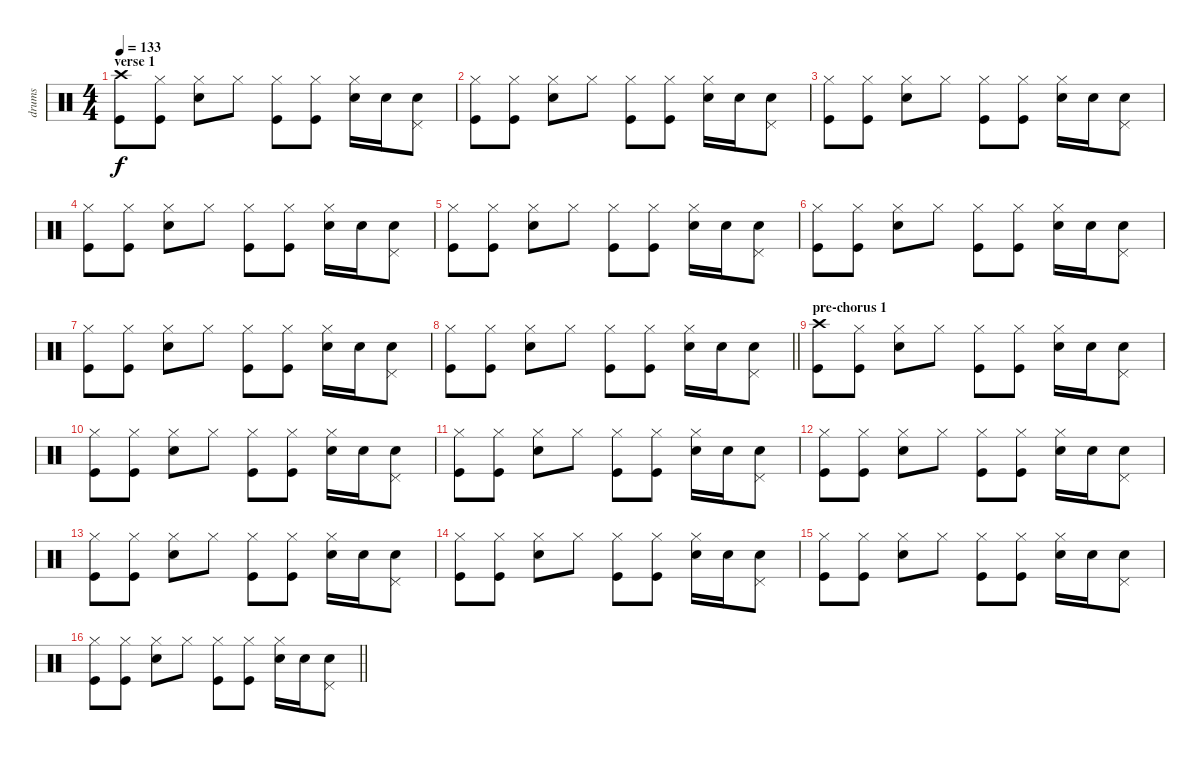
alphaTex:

\track ("drums" "drums") {instrument percussion}
\staff {score}
\articulation defaults
\ts (4 4)
\section ("" "verse 1")
\tempo 133
\clef neutral
\ks c
("Kick (hit)" "Crash high (hit)").8{dy f} ("Kick (hit)" "Hi-Hat (closed)").8 ("Electric Snare (hit)" "Hi-Hat (closed)").8 "Hi-Hat (closed)".8 ("Kick (hit)" "Hi-Hat (closed)").8 ("Kick (hit)" "Hi-Hat (closed)").8 ("Electric Snare (hit)" "Hi-Hat (closed)").16 "Electric Snare (hit)".16 ("Electric Snare (hit)" "Pedal Hi-Hat (hit)").8 |
("Kick (hit)" "Hi-Hat (closed)").8 ("Kick (hit)" "Hi-Hat (closed)").8 ("Electric Snare (hit)" "Hi-Hat (closed)").8 "Hi-Hat (closed)".8 ("Kick (hit)" "Hi-Hat (closed)").8 ("Kick (hit)" "Hi-Hat (closed)").8 ("Electric Snare (hit)" "Hi-Hat (closed)").16 "Electric Snare (hit)".16 ("Electric Snare (hit)" "Pedal Hi-Hat (hit)").8 |
("Kick (hit)" "Hi-Hat (closed)").8 ("Kick (hit)" "Hi-Hat (closed)").8 ("Electric Snare (hit)" "Hi-Hat (closed)").8 "Hi-Hat (closed)".8 ("Kick (hit)" "Hi-Hat (closed)").8 ("Kick (hit)" "Hi-Hat (closed)").8 ("Electric Snare (hit)" "Hi-Hat (closed)").16 "Electric Snare (hit)".16 ("Electric Snare (hit)" "Pedal Hi-Hat (hit)").8 |
("Kick (hit)" "Hi-Hat (closed)").8 ("Kick (hit)" "Hi-Hat (closed)").8 ("Electric Snare (hit)" "Hi-Hat (closed)").8 "Hi-Hat (closed)".8 ("Kick (hit)" "Hi-Hat (closed)").8 ("Kick (hit)" "Hi-Hat (closed)").8 ("Electric Snare (hit)" "Hi-Hat (closed)").16 "Electric Snare (hit)".16 ("Electric Snare (hit)" "Pedal Hi-Hat (hit)").8 |
("Kick (hit)" "Hi-Hat (closed)").8 ("Kick (hit)" "Hi-Hat (closed)").8 ("Electric Snare (hit)" "Hi-Hat (closed)").8 "Hi-Hat (closed)".8 ("Kick (hit)" "Hi-Hat (closed)").8 ("Kick (hit)" "Hi-Hat (closed)").8 ("Electric Snare (hit)" "Hi-Hat (closed)").16 "Electric Snare (hit)".16 ("Electric Snare (hit)" "Pedal Hi-Hat (hit)").8 |
("Kick (hit)" "Hi-Hat (closed)").8 ("Kick (hit)" "Hi-Hat (closed)").8 ("Electric Snare (hit)" "Hi-Hat (closed)").8 "Hi-Hat (closed)".8 ("Kick (hit)" "Hi-Hat (closed)").8 ("Kick (hit)" "Hi-Hat (closed)").8 ("Electric Snare (hit)" "Hi-Hat (closed)").16 "Electric Snare (hit)".16 ("Electric Snare (hit)" "Pedal Hi-Hat (hit)").8 |
("Kick (hit)" "Hi-Hat (closed)").8 ("Kick (hit)" "Hi-Hat (closed)").8 ("Electric Snare (hit)" "Hi-Hat (closed)").8 "Hi-Hat (closed)".8 ("Kick (hit)" "Hi-Hat (closed)").8 ("Kick (hit)" "Hi-Hat (closed)").8 ("Electric Snare (hit)" "Hi-Hat (closed)").16 "Electric Snare (hit)".16 ("Electric Snare (hit)" "Pedal Hi-Hat (hit)").8 |
\barLineRight lightlight
("Kick (hit)" "Hi-Hat (closed)").8 ("Kick (hit)" "Hi-Hat (closed)").8 ("Electric Snare (hit)" "Hi-Hat (closed)").8 "Hi-Hat (closed)".8 ("Kick (hit)" "Hi-Hat (closed)").8 ("Kick (hit)" "Hi-Hat (closed)").8 ("Electric Snare (hit)" "Hi-Hat (closed)").16 "Electric Snare (hit)".16 ("Electric Snare (hit)" "Pedal Hi-Hat (hit)").8 |
\section ("" "pre-chorus 1")
("Kick (hit)" "Crash high (hit)").8 ("Kick (hit)" "Hi-Hat (closed)").8 ("Electric Snare (hit)" "Hi-Hat (closed)").8 "Hi-Hat (closed)".8 ("Kick (hit)" "Hi-Hat (closed)").8 ("Kick (hit)" "Hi-Hat (closed)").8 ("Electric Snare (hit)" "Hi-Hat (closed)").16 "Electric Snare (hit)".16 ("Electric Snare (hit)" "Pedal Hi-Hat (hit)").8 |
("Kick (hit)" "Hi-Hat (closed)").8 ("Kick (hit)" "Hi-Hat (closed)").8 ("Electric Snare (hit)" "Hi-Hat (closed)").8 "Hi-Hat (closed)".8 ("Kick (hit)" "Hi-Hat (closed)").8 ("Kick (hit)" "Hi-Hat (closed)").8 ("Electric Snare (hit)" "Hi-Hat (closed)").16 "Electric Snare (hit)".16 ("Electric Snare (hit)" "Pedal Hi-Hat (hit)").8 |
("Kick (hit)" "Hi-Hat (closed)").8 ("Kick (hit)" "Hi-Hat (closed)").8 ("Electric Snare (hit)" "Hi-Hat (closed)").8 "Hi-Hat (closed)".8 ("Kick (hit)" "Hi-Hat (closed)").8 ("Kick (hit)" "Hi-Hat (closed)").8 ("Electric Snare (hit)" "Hi-Hat (closed)").16 "Electric Snare (hit)".16 ("Electric Snare (hit)" "Pedal Hi-Hat (hit)").8 |
("Kick (hit)" "Hi-Hat (closed)").8 ("Kick (hit)" "Hi-Hat (closed)").8 ("Electric Snare (hit)" "Hi-Hat (closed)").8 "Hi-Hat (closed)".8 ("Kick (hit)" "Hi-Hat (closed)").8 ("Kick (hit)" "Hi-Hat (closed)").8 ("Electric Snare (hit)" "Hi-Hat (closed)").16 "Electric Snare (hit)".16 ("Electric Snare (hit)" "Pedal Hi-Hat (hit)").8 |
("Kick (hit)" "Hi-Hat (closed)").8 ("Kick (hit)" "Hi-Hat (closed)").8 ("Electric Snare (hit)" "Hi-Hat (closed)").8 "Hi-Hat (closed)".8 ("Kick (hit)" "Hi-Hat (closed)").8 ("Kick (hit)" "Hi-Hat (closed)").8 ("Electric Snare (hit)" "Hi-Hat (closed)").16 "Electric Snare (hit)".16 ("Electric Snare (hit)" "Pedal Hi-Hat (hit)").8 |
("Kick (hit)" "Hi-Hat (closed)").8 ("Kick (hit)" "Hi-Hat (closed)").8 ("Electric Snare (hit)" "Hi-Hat (closed)").8 "Hi-Hat (closed)".8 ("Kick (hit)" "Hi-Hat (closed)").8 ("Kick (hit)" "Hi-Hat (closed)").8 ("Electric Snare (hit)" "Hi-Hat (closed)").16 "Electric Snare (hit)".16 ("Electric Snare (hit)" "Pedal Hi-Hat (hit)").8 |
("Kick (hit)" "Hi-Hat (closed)").8 ("Kick (hit)" "Hi-Hat (closed)").8 ("Electric Snare (hit)" "Hi-Hat (closed)").8 "Hi-Hat (closed)".8 ("Kick (hit)" "Hi-Hat (closed)").8 ("Kick (hit)" "Hi-Hat (closed)").8 ("Electric Snare (hit)" "Hi-Hat (closed)").16 "Electric Snare (hit)".16 ("Electric Snare (hit)" "Pedal Hi-Hat (hit)").8 |
\barLineRight lightlight
("Kick (hit)" "Hi-Hat (closed)").8 ("Kick (hit)" "Hi-Hat (closed)").8 ("Electric Snare (hit)" "Hi-Hat (closed)").8 "Hi-Hat (closed)".8 ("Kick (hit)" "Hi-Hat (closed)").8 ("Kick (hit)" "Hi-Hat (closed)").8 ("Electric Snare (hit)" "Hi-Hat (closed)").16 "Electric Snare (hit)".16 ("Electric Snare (hit)" "Pedal Hi-Hat (hit)").8
